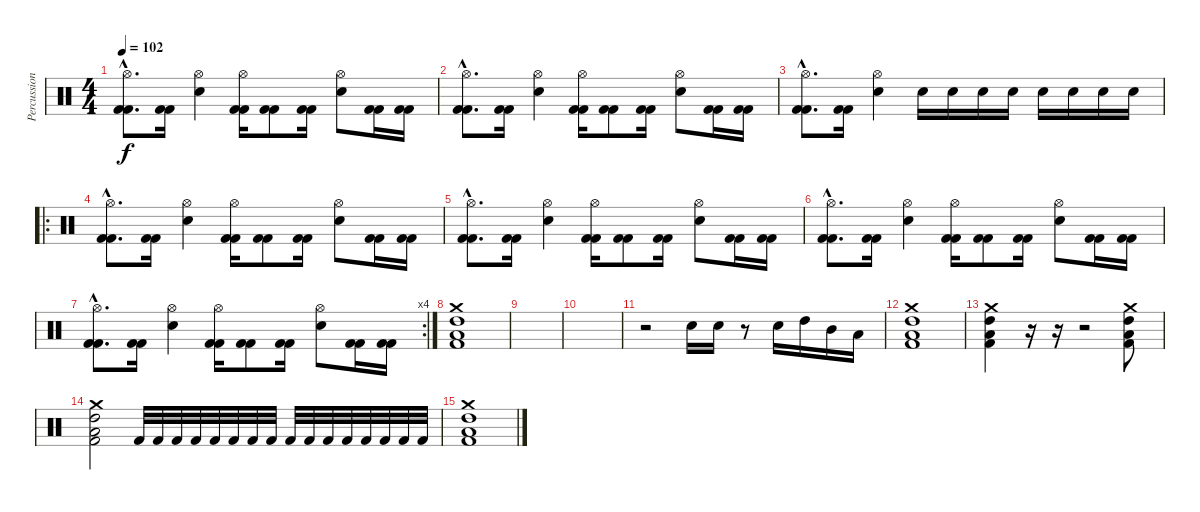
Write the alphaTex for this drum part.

\track ("Percussion" "Percussion") {instrument percussion}
\staff {score}
\articulation defaults
\ts (4 4)
\tempo 102
\clef neutral
\ks c
("Kick (hit) 2"{hac} "Hi-Hat (open)"{hac} "Kick (hit) 2"{hac}).8{d dy f} ("Kick (hit) 2" "Kick (hit) 2").16 ("Snare (hit) 2" "Hi-Hat (open)").4 ("Kick (hit) 2" "Hi-Hat (open)" "Kick (hit) 2").16 ("Kick (hit) 2" "Kick (hit) 2").8 ("Kick (hit) 2" "Kick (hit) 2").16 ("Snare (hit) 2" "Hi-Hat (open)").8 ("Kick (hit) 2" "Kick (hit) 2").16 ("Kick (hit) 2" "Kick (hit) 2").16 |
("Kick (hit) 2"{hac} "Hi-Hat (open)"{hac} "Kick (hit) 2"{hac}).8{d} ("Kick (hit) 2" "Kick (hit) 2").16 ("Snare (hit) 2" "Hi-Hat (open)").4 ("Kick (hit) 2" "Hi-Hat (open)" "Kick (hit) 2").16 ("Kick (hit) 2" "Kick (hit) 2").8 ("Kick (hit) 2" "Kick (hit) 2").16 ("Snare (hit) 2" "Hi-Hat (open)").8 ("Kick (hit) 2" "Kick (hit) 2").16 ("Kick (hit) 2" "Kick (hit) 2").16 |
("Kick (hit) 2"{hac} "Hi-Hat (open)"{hac} "Kick (hit) 2"{hac}).8{d} ("Kick (hit) 2" "Kick (hit) 2").16 ("Snare (hit) 2" "Hi-Hat (open)").4 "Snare (hit) 2".16 "Snare (hit) 2".16 "Snare (hit) 2".16 "Snare (hit) 2".16 "Snare (hit) 2".16 "Snare (hit) 2".16 "Snare (hit) 2".16 "Snare (hit) 2".16 |
\ro
("Kick (hit) 2"{hac} "Hi-Hat (open)"{hac} "Kick (hit) 2"{hac}).8{d} ("Kick (hit) 2" "Kick (hit) 2").16 ("Snare (hit) 2" "Hi-Hat (open)").4 ("Kick (hit) 2" "Hi-Hat (open)" "Kick (hit) 2").16 ("Kick (hit) 2" "Kick (hit) 2").8 ("Kick (hit) 2" "Kick (hit) 2").16 ("Snare (hit) 2" "Hi-Hat (open)").8 ("Kick (hit) 2" "Kick (hit) 2").16 ("Kick (hit) 2" "Kick (hit) 2").16 |
("Kick (hit) 2"{hac} "Hi-Hat (open)"{hac} "Kick (hit) 2"{hac}).8{d} ("Kick (hit) 2" "Kick (hit) 2").16 ("Snare (hit) 2" "Hi-Hat (open)").4 ("Kick (hit) 2" "Hi-Hat (open)" "Kick (hit) 2").16 ("Kick (hit) 2" "Kick (hit) 2").8 ("Kick (hit) 2" "Kick (hit) 2").16 ("Snare (hit) 2" "Hi-Hat (open)").8 ("Kick (hit) 2" "Kick (hit) 2").16 ("Kick (hit) 2" "Kick (hit) 2").16 |
("Kick (hit) 2"{hac} "Hi-Hat (open)"{hac} "Kick (hit) 2"{hac}).8{d} ("Kick (hit) 2" "Kick (hit) 2").16 ("Snare (hit) 2" "Hi-Hat (open)").4 ("Kick (hit) 2" "Hi-Hat (open)" "Kick (hit) 2").16 ("Kick (hit) 2" "Kick (hit) 2").8 ("Kick (hit) 2" "Kick (hit) 2").16 ("Snare (hit) 2" "Hi-Hat (open)").8 ("Kick (hit) 2" "Kick (hit) 2").16 ("Kick (hit) 2" "Kick (hit) 2").16 |
\rc 4
("Kick (hit) 2"{hac} "Hi-Hat (open)"{hac} "Kick (hit) 2"{hac}).8{d} ("Kick (hit) 2" "Kick (hit) 2").16 ("Snare (hit) 2" "Hi-Hat (open)").4 ("Kick (hit) 2" "Hi-Hat (open)" "Kick (hit) 2").16 ("Kick (hit) 2" "Kick (hit) 2").8 ("Kick (hit) 2" "Kick (hit) 2").16 ("Snare (hit) 2" "Hi-Hat (open)").8 ("Kick (hit) 2" "Kick (hit) 2").16 ("Kick (hit) 2" "Kick (hit) 2").16 |
("High Tom (hit)" "Low Tom (hit)" "Crash medium (hit)" "Kick (hit) 2").1 |
|
|
r.2 "Snare (hit) 2".16 "Snare (hit) 2".16 r.8 "Snare (hit) 2".16 "High Tom (hit)".16 "Mid Tom (hit)".16 "Low Tom (hit)".16 |
("High Tom (hit)" "Low Tom (hit)" "Crash medium (hit)" "Kick (hit) 2").1 |
("High Tom (hit)" "Low Tom (hit)" "Crash medium (hit)" "Kick (hit) 2").4 r.16 r.16 r.2 ("High Tom (hit)" "Low Tom (hit)" "Crash medium (hit)" "Kick (hit) 2").8{volume 8} |
("High Tom (hit)" "Low Tom (hit)" "Crash medium (hit)" "Kick (hit) 2").2{volume 7} "Kick (hit) 2".32 "Kick (hit) 2".32 "Kick (hit) 2".32 "Kick (hit) 2".32 "Kick (hit) 2".32 "Kick (hit) 2".32 "Kick (hit) 2".32 "Kick (hit) 2".32 "Kick (hit) 2".32 "Kick (hit) 2".32 "Kick (hit) 2".32 "Kick (hit) 2".32 "Kick (hit) 2".32 "Kick (hit) 2".32 "Kick (hit) 2".32 "Kick (hit) 2".32 |
("High Tom (hit)" "Low Tom (hit)" "Crash medium (hit)" "Kick (hit) 2").1{volume 5}
